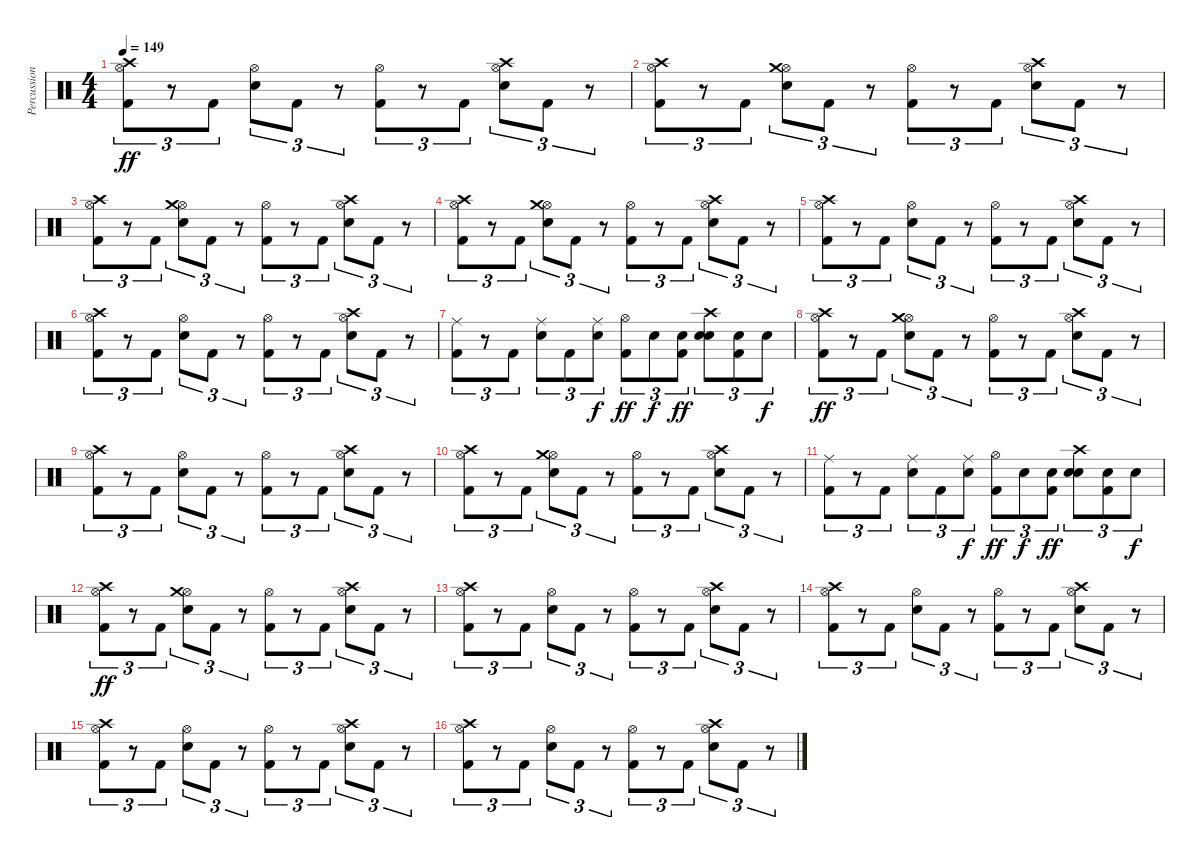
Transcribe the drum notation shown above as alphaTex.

\track ("Percussion" "Percussion") {instrument percussion}
\staff {score}
\articulation defaults
\ts (4 4)
\tempo 149
\clef neutral
\ks c
("Kick (hit) 2" "Hi-Hat (open)" "Crash high (hit)").8{tu (3 2) dy ff} r.8{tu (3 2)} "Kick (hit) 2".8{tu (3 2)} ("Electric Snare (hit)" "Hi-Hat (open)").8{tu (3 2)} "Kick (hit) 2".8{tu (3 2)} r.8{tu (3 2)} ("Kick (hit) 2" "Hi-Hat (open)").8{tu (3 2)} r.8{tu (3 2)} "Kick (hit) 2".8{tu (3 2)} ("Electric Snare (hit)" "Hi-Hat (open)" "Crash high (hit)").8{tu (3 2)} "Kick (hit) 2".8{tu (3 2)} r.8{tu (3 2)} |
("Kick (hit) 2" "Hi-Hat (open)" "Crash high (hit)").8{tu (3 2)} r.8{tu (3 2)} "Kick (hit) 2".8{tu (3 2)} ("Electric Snare (hit)" "Hi-Hat (open)" "Crash medium (hit)").8{tu (3 2)} "Kick (hit) 2".8{tu (3 2)} r.8{tu (3 2)} ("Kick (hit) 2" "Hi-Hat (open)").8{tu (3 2)} r.8{tu (3 2)} "Kick (hit) 2".8{tu (3 2)} ("Electric Snare (hit)" "Hi-Hat (open)" "Crash high (hit)").8{tu (3 2)} "Kick (hit) 2".8{tu (3 2)} r.8{tu (3 2)} |
("Kick (hit) 2" "Hi-Hat (open)" "Crash high (hit)").8{tu (3 2)} r.8{tu (3 2)} "Kick (hit) 2".8{tu (3 2)} ("Electric Snare (hit)" "Hi-Hat (open)" "Crash medium (hit)").8{tu (3 2)} "Kick (hit) 2".8{tu (3 2)} r.8{tu (3 2)} ("Kick (hit) 2" "Hi-Hat (open)").8{tu (3 2)} r.8{tu (3 2)} "Kick (hit) 2".8{tu (3 2)} ("Electric Snare (hit)" "Hi-Hat (open)" "Crash high (hit)").8{tu (3 2)} "Kick (hit) 2".8{tu (3 2)} r.8{tu (3 2)} |
("Kick (hit) 2" "Hi-Hat (open)" "Crash high (hit)").8{tu (3 2)} r.8{tu (3 2)} "Kick (hit) 2".8{tu (3 2)} ("Electric Snare (hit)" "Hi-Hat (open)" "Crash medium (hit)").8{tu (3 2)} "Kick (hit) 2".8{tu (3 2)} r.8{tu (3 2)} ("Kick (hit) 2" "Hi-Hat (open)").8{tu (3 2)} r.8{tu (3 2)} "Kick (hit) 2".8{tu (3 2)} ("Electric Snare (hit)" "Hi-Hat (open)" "Crash high (hit)").8{tu (3 2)} "Kick (hit) 2".8{tu (3 2)} r.8{tu (3 2)} |
("Kick (hit) 2" "Hi-Hat (open)" "Crash high (hit)").8{tu (3 2)} r.8{tu (3 2)} "Kick (hit) 2".8{tu (3 2)} ("Electric Snare (hit)" "Hi-Hat (open)").8{tu (3 2)} "Kick (hit) 2".8{tu (3 2)} r.8{tu (3 2)} ("Kick (hit) 2" "Hi-Hat (open)").8{tu (3 2)} r.8{tu (3 2)} "Kick (hit) 2".8{tu (3 2)} ("Electric Snare (hit)" "Hi-Hat (open)" "Crash high (hit)").8{tu (3 2)} "Kick (hit) 2".8{tu (3 2)} r.8{tu (3 2)} |
("Kick (hit) 2" "Hi-Hat (open)" "Crash high (hit)").8{tu (3 2)} r.8{tu (3 2)} "Kick (hit) 2".8{tu (3 2)} ("Electric Snare (hit)" "Hi-Hat (open)").8{tu (3 2)} "Kick (hit) 2".8{tu (3 2)} r.8{tu (3 2)} ("Kick (hit) 2" "Hi-Hat (open)").8{tu (3 2)} r.8{tu (3 2)} "Kick (hit) 2".8{tu (3 2)} ("Electric Snare (hit)" "Hi-Hat (open)" "Crash high (hit)").8{tu (3 2)} "Kick (hit) 2".8{tu (3 2)} r.8{tu (3 2)} |
("Kick (hit) 2" "Ride (middle)").8{tu (3 2)} r.8{tu (3 2)} "Kick (hit) 2".8{tu (3 2)} ("Electric Snare (hit)" "Ride (middle)").8{tu (3 2)} "Kick (hit) 2".8{tu (3 2)} ("Electric Snare (hit)" "Ride (middle)").8{tu (3 2) dy f} ("Kick (hit) 2" "Hi-Hat (open)").8{tu (3 2) dy ff} "Electric Snare (hit)".8{tu (3 2) dy f} ("Kick (hit) 2" "Electric Snare (hit)").8{tu (3 2) dy ff} ("Snare (hit) 2" "Electric Snare (hit)" "Crash high (hit)").8{tu (3 2)} ("Kick (hit) 2" "Electric Snare (hit)").8{tu (3 2)} "Electric Snare (hit)".8{tu (3 2) dy f} |
("Kick (hit) 2" "Hi-Hat (open)" "Crash high (hit)").8{tu (3 2) dy ff} r.8{tu (3 2)} "Kick (hit) 2".8{tu (3 2)} ("Electric Snare (hit)" "Hi-Hat (open)" "Crash medium (hit)").8{tu (3 2)} "Kick (hit) 2".8{tu (3 2)} r.8{tu (3 2)} ("Kick (hit) 2" "Hi-Hat (open)").8{tu (3 2)} r.8{tu (3 2)} "Kick (hit) 2".8{tu (3 2)} ("Electric Snare (hit)" "Hi-Hat (open)" "Crash high (hit)").8{tu (3 2)} "Kick (hit) 2".8{tu (3 2)} r.8{tu (3 2)} |
("Kick (hit) 2" "Hi-Hat (open)" "Crash high (hit)").8{tu (3 2)} r.8{tu (3 2)} "Kick (hit) 2".8{tu (3 2)} ("Electric Snare (hit)" "Hi-Hat (open)").8{tu (3 2)} "Kick (hit) 2".8{tu (3 2)} r.8{tu (3 2)} ("Kick (hit) 2" "Hi-Hat (open)").8{tu (3 2)} r.8{tu (3 2)} "Kick (hit) 2".8{tu (3 2)} ("Electric Snare (hit)" "Hi-Hat (open)" "Crash high (hit)").8{tu (3 2)} "Kick (hit) 2".8{tu (3 2)} r.8{tu (3 2)} |
("Kick (hit) 2" "Hi-Hat (open)" "Crash high (hit)").8{tu (3 2)} r.8{tu (3 2)} "Kick (hit) 2".8{tu (3 2)} ("Electric Snare (hit)" "Hi-Hat (open)" "Crash medium (hit)").8{tu (3 2)} "Kick (hit) 2".8{tu (3 2)} r.8{tu (3 2)} ("Kick (hit) 2" "Hi-Hat (open)").8{tu (3 2)} r.8{tu (3 2)} "Kick (hit) 2".8{tu (3 2)} ("Electric Snare (hit)" "Hi-Hat (open)" "Crash high (hit)").8{tu (3 2)} "Kick (hit) 2".8{tu (3 2)} r.8{tu (3 2)} |
("Kick (hit) 2" "Ride (middle)").8{tu (3 2)} r.8{tu (3 2)} "Kick (hit) 2".8{tu (3 2)} ("Electric Snare (hit)" "Ride (middle)").8{tu (3 2)} "Kick (hit) 2".8{tu (3 2)} ("Electric Snare (hit)" "Ride (middle)").8{tu (3 2) dy f} ("Kick (hit) 2" "Hi-Hat (open)").8{tu (3 2) dy ff} "Electric Snare (hit)".8{tu (3 2) dy f} ("Kick (hit) 2" "Electric Snare (hit)").8{tu (3 2) dy ff} ("Snare (hit) 2" "Electric Snare (hit)" "Crash high (hit)").8{tu (3 2)} ("Kick (hit) 2" "Electric Snare (hit)").8{tu (3 2)} "Electric Snare (hit)".8{tu (3 2) dy f} |
("Kick (hit) 2" "Hi-Hat (open)" "Crash high (hit)").8{tu (3 2) dy ff} r.8{tu (3 2)} "Kick (hit) 2".8{tu (3 2)} ("Electric Snare (hit)" "Hi-Hat (open)" "Crash medium (hit)").8{tu (3 2)} "Kick (hit) 2".8{tu (3 2)} r.8{tu (3 2)} ("Kick (hit) 2" "Hi-Hat (open)").8{tu (3 2)} r.8{tu (3 2)} "Kick (hit) 2".8{tu (3 2)} ("Electric Snare (hit)" "Hi-Hat (open)" "Crash high (hit)").8{tu (3 2)} "Kick (hit) 2".8{tu (3 2)} r.8{tu (3 2)} |
("Kick (hit) 2" "Hi-Hat (open)" "Crash high (hit)").8{tu (3 2)} r.8{tu (3 2)} "Kick (hit) 2".8{tu (3 2)} ("Electric Snare (hit)" "Hi-Hat (open)").8{tu (3 2)} "Kick (hit) 2".8{tu (3 2)} r.8{tu (3 2)} ("Kick (hit) 2" "Hi-Hat (open)").8{tu (3 2)} r.8{tu (3 2)} "Kick (hit) 2".8{tu (3 2)} ("Electric Snare (hit)" "Hi-Hat (open)" "Crash high (hit)").8{tu (3 2)} "Kick (hit) 2".8{tu (3 2)} r.8{tu (3 2)} |
("Kick (hit) 2" "Hi-Hat (open)" "Crash high (hit)").8{tu (3 2)} r.8{tu (3 2)} "Kick (hit) 2".8{tu (3 2)} ("Electric Snare (hit)" "Hi-Hat (open)").8{tu (3 2)} "Kick (hit) 2".8{tu (3 2)} r.8{tu (3 2)} ("Kick (hit) 2" "Hi-Hat (open)").8{tu (3 2)} r.8{tu (3 2)} "Kick (hit) 2".8{tu (3 2)} ("Electric Snare (hit)" "Hi-Hat (open)" "Crash high (hit)").8{tu (3 2)} "Kick (hit) 2".8{tu (3 2)} r.8{tu (3 2)} |
("Kick (hit) 2" "Hi-Hat (open)" "Crash high (hit)").8{tu (3 2)} r.8{tu (3 2)} "Kick (hit) 2".8{tu (3 2)} ("Electric Snare (hit)" "Hi-Hat (open)").8{tu (3 2)} "Kick (hit) 2".8{tu (3 2)} r.8{tu (3 2)} ("Kick (hit) 2" "Hi-Hat (open)").8{tu (3 2)} r.8{tu (3 2)} "Kick (hit) 2".8{tu (3 2)} ("Electric Snare (hit)" "Hi-Hat (open)" "Crash high (hit)").8{tu (3 2)} "Kick (hit) 2".8{tu (3 2)} r.8{tu (3 2)} |
("Kick (hit) 2" "Hi-Hat (open)" "Crash high (hit)").8{tu (3 2)} r.8{tu (3 2)} "Kick (hit) 2".8{tu (3 2)} ("Electric Snare (hit)" "Hi-Hat (open)").8{tu (3 2)} "Kick (hit) 2".8{tu (3 2)} r.8{tu (3 2)} ("Kick (hit) 2" "Hi-Hat (open)").8{tu (3 2)} r.8{tu (3 2)} "Kick (hit) 2".8{tu (3 2)} ("Electric Snare (hit)" "Hi-Hat (open)" "Crash high (hit)").8{tu (3 2)} "Kick (hit) 2".8{tu (3 2)} r.8{tu (3 2)}
